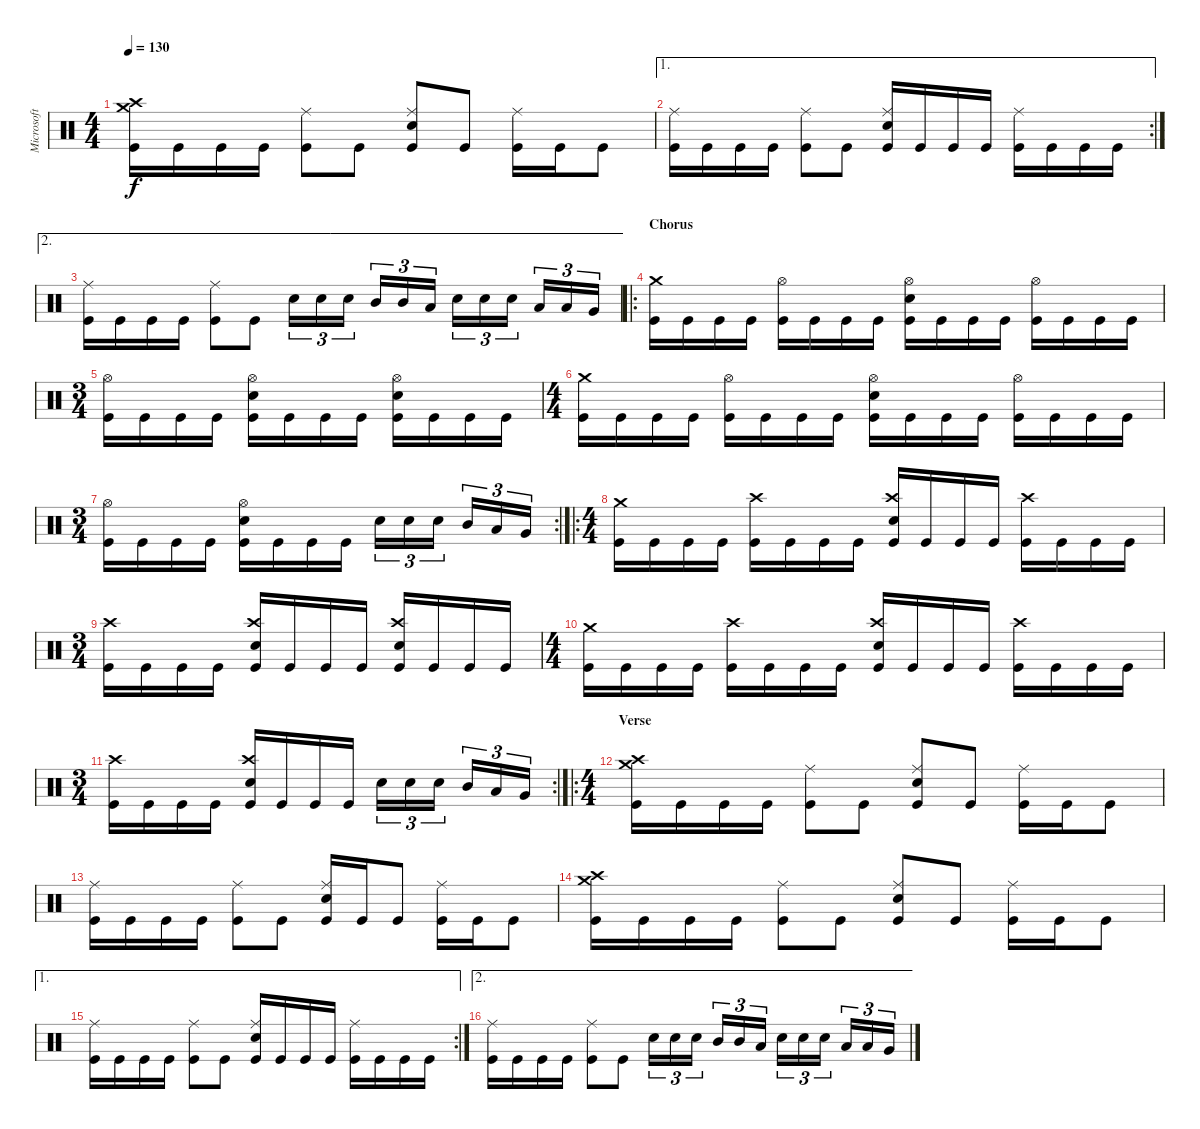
\track ("Microsoft S.A.M." "Microsoft ") {instrument percussion}
\staff {score}
\articulation defaults
\ts (4 4)
\tempo 130
\clef neutral
\ks c
("Kick (hit)" "Crash medium (hit)" "Crash high (hit)").16{dy f} "Kick (hit)".16 "Kick (hit)".16 "Kick (hit)".16 ("Kick (hit)" "Ride (middle)").8 "Kick (hit)".8 ("Kick (hit)" "Ride (middle)" "Snare (hit) 2").8 "Kick (hit)".8 ("Kick (hit)" "Ride (middle)").16 "Kick (hit)".16 "Kick (hit)".8 |
\ae 1
\rc 2
("Kick (hit)" "Ride (middle)").16 "Kick (hit)".16 "Kick (hit)".16 "Kick (hit)".16 ("Kick (hit)" "Ride (middle)").8 "Kick (hit)".8 ("Kick (hit)" "Ride (middle)" "Snare (hit) 2").16 "Kick (hit)".16 "Kick (hit)".16 "Kick (hit)".16 ("Kick (hit)" "Ride (middle)").16 "Kick (hit)".16 "Kick (hit)".16 "Kick (hit)".16 |
\ae 2
("Kick (hit)" "Ride (middle)").16 "Kick (hit)".16 "Kick (hit)".16 "Kick (hit)".16 ("Kick (hit)" "Ride (middle)").8 "Kick (hit)".8 "Snare (hit) 2".16{tu (3 2)} "Snare (hit) 2".16{tu (3 2)} "Snare (hit) 2".16{tu (3 2)} "Mid Tom (hit)".16{tu (3 2)} "Mid Tom (hit)".16{tu (3 2)} "Low Tom (hit)".16{tu (3 2)} "Snare (hit) 2".16{tu (3 2)} "Snare (hit) 2".16{tu (3 2)} "Snare (hit) 2".16{tu (3 2)} "Low Tom (hit)".16{tu (3 2)} "Low Tom (hit)".16{tu (3 2)} "Very Low Tom (hit)".16{tu (3 2)} |
\ro
\section ("" "Chorus")
("Kick (hit)" "Crash medium (hit)").16 "Kick (hit)".16 "Kick (hit)".16 "Kick (hit)".16 ("Kick (hit)" "Hi-Hat (open)").16 "Kick (hit)".16 "Kick (hit)".16 "Kick (hit)".16 ("Kick (hit)" "Hi-Hat (open)" "Snare (hit) 2").16 "Kick (hit)".16 "Kick (hit)".16 "Kick (hit)".16 ("Kick (hit)" "Hi-Hat (open)").16 "Kick (hit)".16 "Kick (hit)".16 "Kick (hit)".16 |
\ts (3 4)
("Kick (hit)" "Hi-Hat (open)").16 "Kick (hit)".16 "Kick (hit)".16 "Kick (hit)".16 ("Kick (hit)" "Hi-Hat (open)" "Snare (hit) 2").16 "Kick (hit)".16 "Kick (hit)".16 "Kick (hit)".16 ("Kick (hit)" "Hi-Hat (open)" "Snare (hit) 2").16 "Kick (hit)".16 "Kick (hit)".16 "Kick (hit)".16 |
\ts (4 4)
("Kick (hit)" "Crash medium (hit)").16 "Kick (hit)".16 "Kick (hit)".16 "Kick (hit)".16 ("Kick (hit)" "Hi-Hat (open)").16 "Kick (hit)".16 "Kick (hit)".16 "Kick (hit)".16 ("Kick (hit)" "Hi-Hat (open)" "Snare (hit) 2").16 "Kick (hit)".16 "Kick (hit)".16 "Kick (hit)".16 ("Kick (hit)" "Hi-Hat (open)").16 "Kick (hit)".16 "Kick (hit)".16 "Kick (hit)".16 |
\rc 2
\ts (3 4)
("Kick (hit)" "Hi-Hat (open)").16 "Kick (hit)".16 "Kick (hit)".16 "Kick (hit)".16 ("Kick (hit)" "Hi-Hat (open)" "Snare (hit) 2").16 "Kick (hit)".16 "Kick (hit)".16 "Kick (hit)".16 "Snare (hit) 2".16{tu (3 2)} "Snare (hit) 2".16{tu (3 2)} "Snare (hit) 2".16{tu (3 2)} "Mid Tom (hit)".16{tu (3 2)} "Low Tom (hit)".16{tu (3 2)} "Very Low Tom (hit)".16{tu (3 2)} |
\ro
\ts (4 4)
("Kick (hit)" "Crash medium (hit)").16 "Kick (hit)".16 "Kick (hit)".16 "Kick (hit)".16 ("Kick (hit)" "Crash high (hit)").16 "Kick (hit)".16 "Kick (hit)".16 "Kick (hit)".16 ("Kick (hit)" "Snare (hit) 2" "Crash high (hit)").16 "Kick (hit)".16 "Kick (hit)".16 "Kick (hit)".16 ("Kick (hit)" "Crash high (hit)").16 "Kick (hit)".16 "Kick (hit)".16 "Kick (hit)".16 |
\ts (3 4)
("Kick (hit)" "Crash high (hit)").16 "Kick (hit)".16 "Kick (hit)".16 "Kick (hit)".16 ("Kick (hit)" "Crash high (hit)" "Snare (hit) 2").16 "Kick (hit)".16 "Kick (hit)".16 "Kick (hit)".16 ("Kick (hit)" "Snare (hit) 2" "Crash high (hit)").16 "Kick (hit)".16 "Kick (hit)".16 "Kick (hit)".16 |
\ts (4 4)
("Kick (hit)" "Crash medium (hit)").16 "Kick (hit)".16 "Kick (hit)".16 "Kick (hit)".16 ("Kick (hit)" "Crash high (hit)").16 "Kick (hit)".16 "Kick (hit)".16 "Kick (hit)".16 ("Kick (hit)" "Snare (hit) 2" "Crash high (hit)").16 "Kick (hit)".16 "Kick (hit)".16 "Kick (hit)".16 ("Kick (hit)" "Crash high (hit)").16 "Kick (hit)".16 "Kick (hit)".16 "Kick (hit)".16 |
\rc 2
\ts (3 4)
("Kick (hit)" "Crash high (hit)").16 "Kick (hit)".16 "Kick (hit)".16 "Kick (hit)".16 ("Kick (hit)" "Crash high (hit)" "Snare (hit) 2").16 "Kick (hit)".16 "Kick (hit)".16 "Kick (hit)".16 "Snare (hit) 2".16{tu (3 2)} "Snare (hit) 2".16{tu (3 2)} "Snare (hit) 2".16{tu (3 2)} "Mid Tom (hit)".16{tu (3 2)} "Low Tom (hit)".16{tu (3 2)} "Very Low Tom (hit)".16{tu (3 2)} |
\ro
\ts (4 4)
\section ("" "Verse")
("Kick (hit)" "Crash medium (hit)" "Crash high (hit)").16 "Kick (hit)".16 "Kick (hit)".16 "Kick (hit)".16 ("Kick (hit)" "Ride (middle)").8 "Kick (hit)".8 ("Kick (hit)" "Ride (middle)" "Snare (hit) 2").8 "Kick (hit)".8 ("Kick (hit)" "Ride (middle)").16 "Kick (hit)".16 "Kick (hit)".8 |
("Kick (hit)" "Ride (middle)").16 "Kick (hit)".16 "Kick (hit)".16 "Kick (hit)".16 ("Kick (hit)" "Ride (middle)").8 "Kick (hit)".8 ("Kick (hit)" "Ride (middle)" "Snare (hit) 2").16 "Kick (hit)".16 "Kick (hit)".8 ("Kick (hit)" "Ride (middle)").16 "Kick (hit)".16 "Kick (hit)".8 |
("Kick (hit)" "Crash medium (hit)" "Crash high (hit)").16 "Kick (hit)".16 "Kick (hit)".16 "Kick (hit)".16 ("Kick (hit)" "Ride (middle)").8 "Kick (hit)".8 ("Kick (hit)" "Ride (middle)" "Snare (hit) 2").8 "Kick (hit)".8 ("Kick (hit)" "Ride (middle)").16 "Kick (hit)".16 "Kick (hit)".8 |
\ae 1
\rc 2
("Kick (hit)" "Ride (middle)").16 "Kick (hit)".16 "Kick (hit)".16 "Kick (hit)".16 ("Kick (hit)" "Ride (middle)").8 "Kick (hit)".8 ("Kick (hit)" "Ride (middle)" "Snare (hit) 2").16 "Kick (hit)".16 "Kick (hit)".16 "Kick (hit)".16 ("Kick (hit)" "Ride (middle)").16 "Kick (hit)".16 "Kick (hit)".16 "Kick (hit)".16 |
\ae 2
("Kick (hit)" "Ride (middle)").16 "Kick (hit)".16 "Kick (hit)".16 "Kick (hit)".16 ("Kick (hit)" "Ride (middle)").8 "Kick (hit)".8 "Snare (hit) 2".16{tu (3 2)} "Snare (hit) 2".16{tu (3 2)} "Snare (hit) 2".16{tu (3 2)} "Mid Tom (hit)".16{tu (3 2)} "Mid Tom (hit)".16{tu (3 2)} "Low Tom (hit)".16{tu (3 2)} "Snare (hit) 2".16{tu (3 2)} "Snare (hit) 2".16{tu (3 2)} "Snare (hit) 2".16{tu (3 2)} "Low Tom (hit)".16{tu (3 2)} "Low Tom (hit)".16{tu (3 2)} "Very Low Tom (hit)".16{tu (3 2)}
